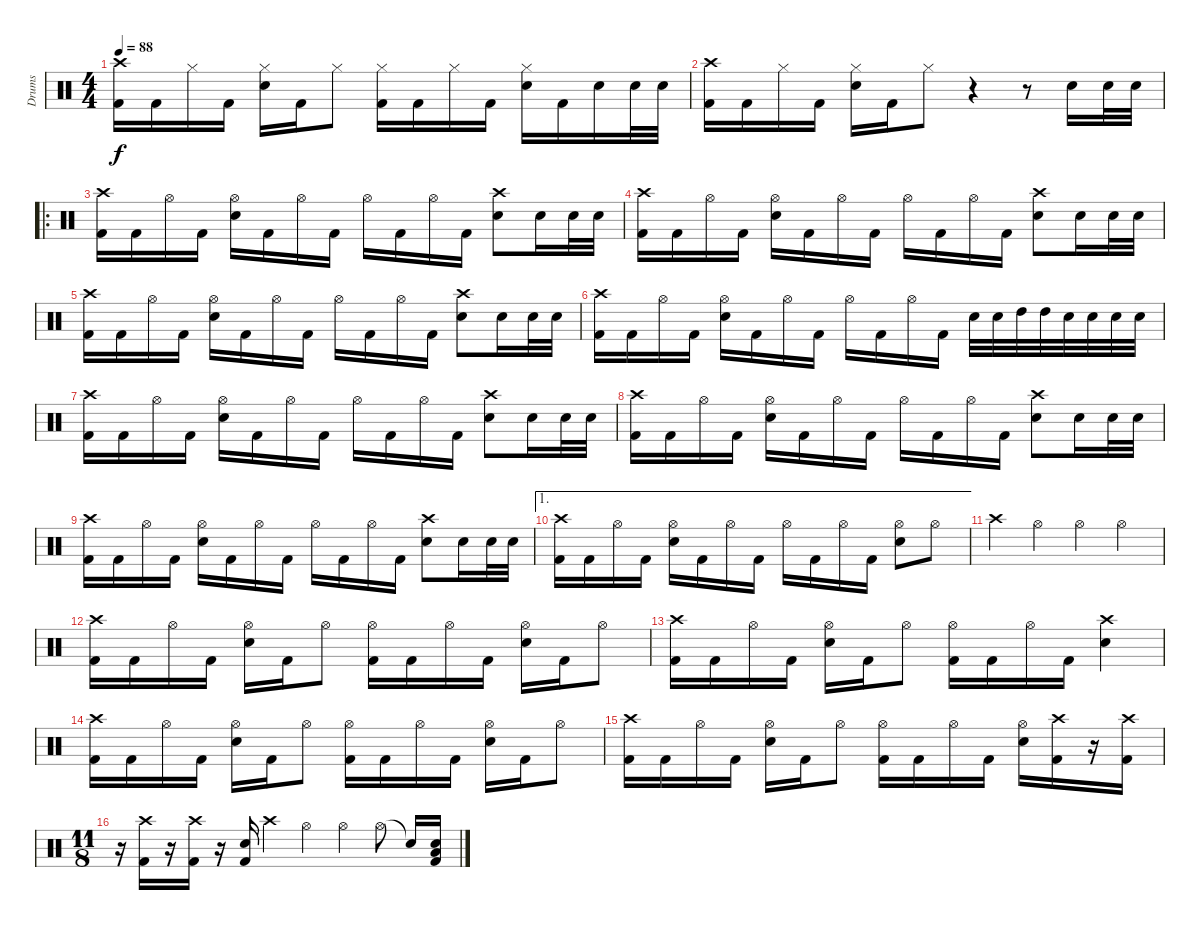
\track ("Drums" "Drums") {instrument percussion}
\staff {score}
\articulation defaults
\ts (4 4)
\tempo 88
\clef neutral
\ks c
("Crash high (hit)" "Kick (hit) 2").16{dy f} "Kick (hit) 2".16 "Hi-Hat (closed)".16 "Kick (hit) 2".16 ("Hi-Hat (closed)" "Snare (hit) 2").16 "Kick (hit) 2".16 "Hi-Hat (closed)".8 ("Hi-Hat (closed)" "Kick (hit) 2").16 "Kick (hit) 2".16 "Hi-Hat (closed)".16 "Kick (hit) 2".16 ("Hi-Hat (closed)" "Snare (hit) 2").16 "Kick (hit) 2".16 "Snare (hit) 2".16 "Snare (hit) 2".32 "Snare (hit) 2".32 |
("Crash high (hit)" "Kick (hit) 2").16 "Kick (hit) 2".16 "Hi-Hat (closed)".16 "Kick (hit) 2".16 ("Hi-Hat (closed)" "Snare (hit) 2").16 "Kick (hit) 2".16 "Hi-Hat (closed)".8 r.4 r.8 "Snare (hit) 2".16 "Snare (hit) 2".32 "Snare (hit) 2".32 |
\ro
("Crash high (hit)" "Kick (hit) 2").16 "Kick (hit) 2".16 "Hi-Hat (open)".16 "Kick (hit) 2".16 ("Hi-Hat (open)" "Snare (hit) 2").16 "Kick (hit) 2".16 "Hi-Hat (open)".16 "Kick (hit) 2".16 "Hi-Hat (open)".16 "Kick (hit) 2".16 "Hi-Hat (open)".16 "Kick (hit) 2".16 ("Crash high (hit)" "Snare (hit) 2").8 "Snare (hit) 2".16 "Snare (hit) 2".32 "Snare (hit) 2".32 |
("Crash high (hit)" "Kick (hit) 2").16 "Kick (hit) 2".16 "Hi-Hat (open)".16 "Kick (hit) 2".16 ("Hi-Hat (open)" "Snare (hit) 2").16 "Kick (hit) 2".16 "Hi-Hat (open)".16 "Kick (hit) 2".16 "Hi-Hat (open)".16 "Kick (hit) 2".16 "Hi-Hat (open)".16 "Kick (hit) 2".16 ("Crash high (hit)" "Snare (hit) 2").8 "Snare (hit) 2".16 "Snare (hit) 2".32 "Snare (hit) 2".32 |
("Crash high (hit)" "Kick (hit) 2").16 "Kick (hit) 2".16 "Hi-Hat (open)".16 "Kick (hit) 2".16 ("Hi-Hat (open)" "Snare (hit) 2").16 "Kick (hit) 2".16 "Hi-Hat (open)".16 "Kick (hit) 2".16 "Hi-Hat (open)".16 "Kick (hit) 2".16 "Hi-Hat (open)".16 "Kick (hit) 2".16 ("Crash high (hit)" "Snare (hit) 2").8 "Snare (hit) 2".16 "Snare (hit) 2".32 "Snare (hit) 2".32 |
("Crash high (hit)" "Kick (hit) 2").16 "Kick (hit) 2".16 "Hi-Hat (open)".16 "Kick (hit) 2".16 ("Hi-Hat (open)" "Snare (hit) 2").16 "Kick (hit) 2".16 "Hi-Hat (open)".16 "Kick (hit) 2".16 "Hi-Hat (open)".16 "Kick (hit) 2".16 "Hi-Hat (open)".16 "Kick (hit) 2".16 "Snare (hit) 2".32 "Snare (hit) 2".32 "High Tom (hit)".32 "High Tom (hit)".32 "Snare (hit) 2".32 "Snare (hit) 2".32 "Snare (hit) 2".32 "Snare (hit) 2".32 |
("Crash high (hit)" "Kick (hit) 2").16 "Kick (hit) 2".16 "Hi-Hat (open)".16 "Kick (hit) 2".16 ("Hi-Hat (open)" "Snare (hit) 2").16 "Kick (hit) 2".16 "Hi-Hat (open)".16 "Kick (hit) 2".16 "Hi-Hat (open)".16 "Kick (hit) 2".16 "Hi-Hat (open)".16 "Kick (hit) 2".16 ("Crash high (hit)" "Snare (hit) 2").8 "Snare (hit) 2".16 "Snare (hit) 2".32 "Snare (hit) 2".32 |
("Crash high (hit)" "Kick (hit) 2").16 "Kick (hit) 2".16 "Hi-Hat (open)".16 "Kick (hit) 2".16 ("Hi-Hat (open)" "Snare (hit) 2").16 "Kick (hit) 2".16 "Hi-Hat (open)".16 "Kick (hit) 2".16 "Hi-Hat (open)".16 "Kick (hit) 2".16 "Hi-Hat (open)".16 "Kick (hit) 2".16 ("Crash high (hit)" "Snare (hit) 2").8 "Snare (hit) 2".16 "Snare (hit) 2".32 "Snare (hit) 2".32 |
("Crash high (hit)" "Kick (hit) 2").16 "Kick (hit) 2".16 "Hi-Hat (open)".16 "Kick (hit) 2".16 ("Hi-Hat (open)" "Snare (hit) 2").16 "Kick (hit) 2".16 "Hi-Hat (open)".16 "Kick (hit) 2".16 "Hi-Hat (open)".16 "Kick (hit) 2".16 "Hi-Hat (open)".16 "Kick (hit) 2".16 ("Crash high (hit)" "Snare (hit) 2").8 "Snare (hit) 2".16 "Snare (hit) 2".32 "Snare (hit) 2".32 |
\ae 1
("Crash high (hit)" "Kick (hit) 2").16 "Kick (hit) 2".16 "Hi-Hat (open)".16 "Kick (hit) 2".16 ("Hi-Hat (open)" "Snare (hit) 2").16 "Kick (hit) 2".16 "Hi-Hat (open)".16 "Kick (hit) 2".16 "Hi-Hat (open)".16 "Kick (hit) 2".16 "Hi-Hat (open)".16 "Kick (hit) 2".16 ("Hi-Hat (open)" "Snare (hit) 2").8 "Hi-Hat (open)".8 |
"Crash high (hit)".4 "Hi-Hat (open)".4 "Hi-Hat (open)".4 "Hi-Hat (open)".4 |
("Crash high (hit)" "Kick (hit) 2").16 "Kick (hit) 2".16 "Hi-Hat (open)".16 "Kick (hit) 2".16 ("Hi-Hat (open)" "Snare (hit) 2").16 "Kick (hit) 2".16 "Hi-Hat (open)".8 ("Hi-Hat (open)" "Kick (hit) 2").16 "Kick (hit) 2".16 "Hi-Hat (open)".16 "Kick (hit) 2".16 ("Hi-Hat (open)" "Snare (hit) 2").16 "Kick (hit) 2".16 "Hi-Hat (open)".8 |
("Crash high (hit)" "Kick (hit) 2").16 "Kick (hit) 2".16 "Hi-Hat (open)".16 "Kick (hit) 2".16 ("Hi-Hat (open)" "Snare (hit) 2").16 "Kick (hit) 2".16 "Hi-Hat (open)".8 ("Hi-Hat (open)" "Kick (hit) 2").16 "Kick (hit) 2".16 "Hi-Hat (open)".16 "Kick (hit) 2".16 ("Crash high (hit)" "Snare (hit) 2").4 |
("Crash high (hit)" "Kick (hit) 2").16 "Kick (hit) 2".16 "Hi-Hat (open)".16 "Kick (hit) 2".16 ("Hi-Hat (open)" "Snare (hit) 2").16 "Kick (hit) 2".16 "Hi-Hat (open)".8 ("Hi-Hat (open)" "Kick (hit) 2").16 "Kick (hit) 2".16 "Hi-Hat (open)".16 "Kick (hit) 2".16 ("Hi-Hat (open)" "Snare (hit) 2").16 "Kick (hit) 2".16 "Hi-Hat (open)".8 |
("Crash high (hit)" "Kick (hit) 2").16 "Kick (hit) 2".16 "Hi-Hat (open)".16 "Kick (hit) 2".16 ("Hi-Hat (open)" "Snare (hit) 2").16 "Kick (hit) 2".16 "Hi-Hat (open)".8 ("Hi-Hat (open)" "Kick (hit) 2").16 "Kick (hit) 2".16 "Hi-Hat (open)".16 "Kick (hit) 2".16 ("Hi-Hat (open)" "Snare (hit) 2").16 ("Crash high (hit)" "Kick (hit) 2").16 r.16 ("Crash high (hit)" "Kick (hit) 2").16 |
\ts (11 8)
r.16 ("Crash high (hit)" "Kick (hit) 2").16 r.16 ("Crash high (hit)" "Kick (hit) 2").16 r.16 ("Snare (hit) 2" "Kick (hit) 2").16 "Crash high (hit)".4 "Hi-Hat (open)".4 "Hi-Hat (open)".4 "Hi-Hat (open)".8 "Snare (hit)"{t}.16 ("Low Tom (hit)" "Snare (hit) 2" "Kick (hit) 2").16
